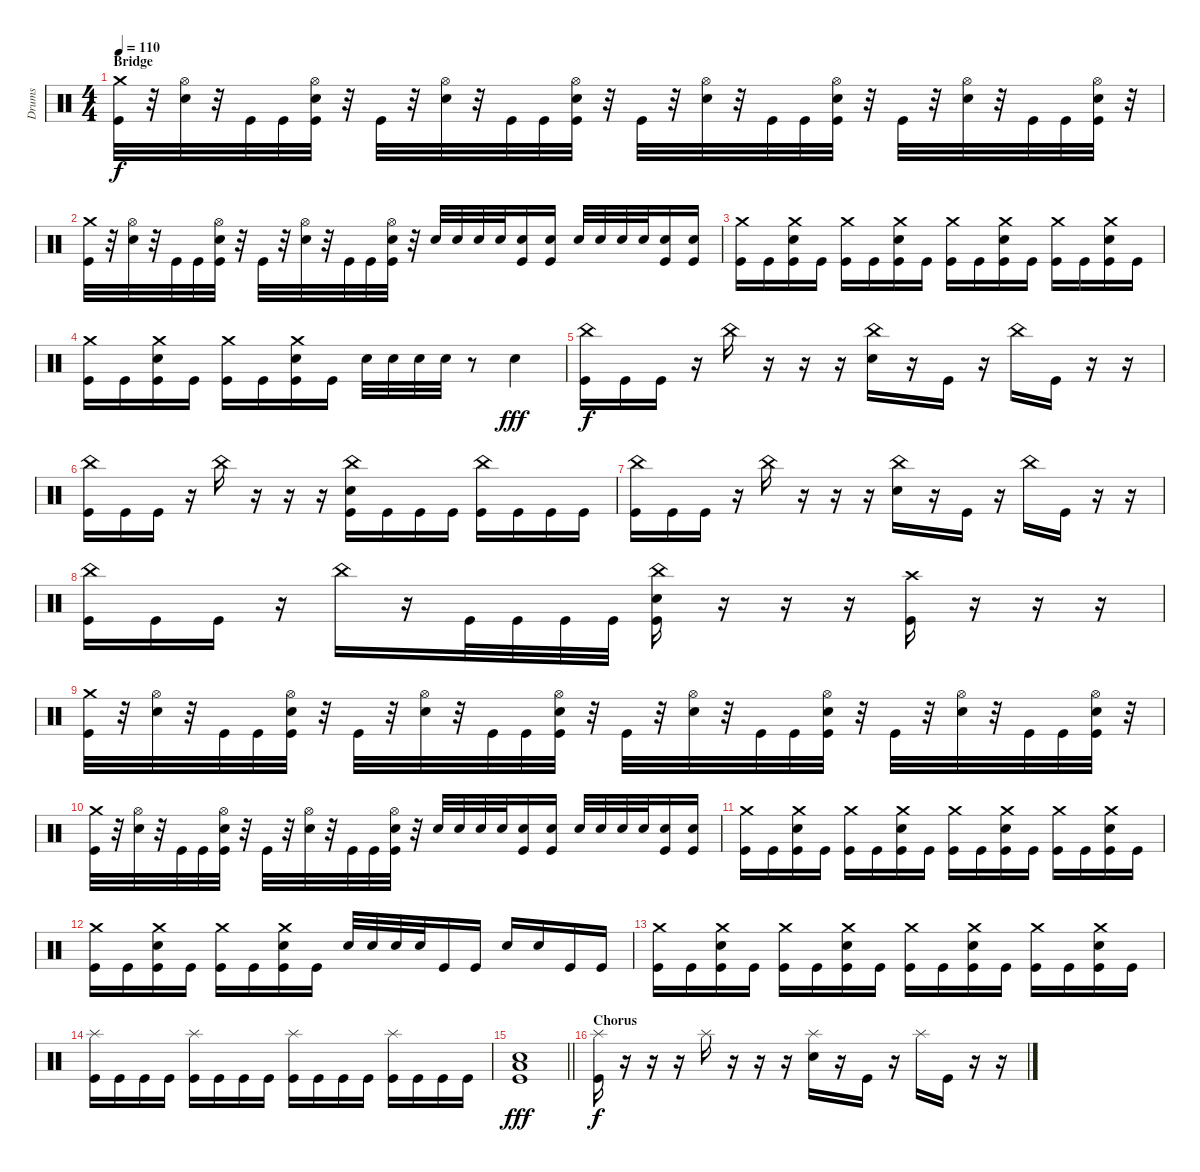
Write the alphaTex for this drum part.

\track ("Drums" "Drums") {instrument percussion}
\staff {score}
\articulation defaults
\ts (4 4)
\section ("" "Bridge")
\tempo 110
\clef neutral
\ks c
("Crash medium (hit)" "Kick (hit)").32{dy f} r.32 ("Snare (hit) 2" "Hi-Hat (open)").32 r.32 "Kick (hit)".32 "Kick (hit)".32 ("Kick (hit)" "Snare (hit) 2" "Hi-Hat (open)").32 r.32 "Kick (hit)".32 r.32 ("Snare (hit) 2" "Hi-Hat (open)").32 r.32 "Kick (hit)".32 "Kick (hit)".32 ("Kick (hit)" "Snare (hit) 2" "Hi-Hat (open)").32 r.32 "Kick (hit)".32 r.32 ("Snare (hit) 2" "Hi-Hat (open)").32 r.32 "Kick (hit)".32 "Kick (hit)".32 ("Kick (hit)" "Snare (hit) 2" "Hi-Hat (open)").32 r.32 "Kick (hit)".32 r.32 ("Snare (hit) 2" "Hi-Hat (open)").32 r.32 "Kick (hit)".32 "Kick (hit)".32 ("Kick (hit)" "Snare (hit) 2" "Hi-Hat (open)").32 r.32 |
("Crash medium (hit)" "Kick (hit)").32 r.32 ("Snare (hit) 2" "Hi-Hat (open)").32 r.32 "Kick (hit)".32 "Kick (hit)".32 ("Kick (hit)" "Snare (hit) 2" "Hi-Hat (open)").32 r.32 "Kick (hit)".32 r.32 ("Snare (hit) 2" "Hi-Hat (open)").32 r.32 "Kick (hit)".32 "Kick (hit)".32 ("Kick (hit)" "Hi-Hat (open)" "Snare (hit) 2").32 r.32 "Snare (hit) 2".32 "Snare (hit) 2".32 "Snare (hit) 2".32 "Snare (hit) 2".32 ("Snare (hit) 2" "Kick (hit)").16 ("Snare (hit) 2" "Kick (hit)").16 "Snare (hit) 2".32 "Snare (hit) 2".32 "Snare (hit) 2".32 "Snare (hit) 2".32 ("Snare (hit) 2" "Kick (hit)").16 ("Snare (hit) 2" "Kick (hit)").16 |
("Kick (hit)" "Crash medium (hit)").16 "Kick (hit)".16 ("Kick (hit)" "Crash medium (hit)" "Snare (hit) 2").16 "Kick (hit)".16 ("Kick (hit)" "Crash medium (hit)").16 "Kick (hit)".16 ("Kick (hit)" "Crash medium (hit)" "Snare (hit) 2").16 "Kick (hit)".16 ("Kick (hit)" "Crash medium (hit)").16 "Kick (hit)".16 ("Kick (hit)" "Crash medium (hit)" "Snare (hit) 2").16 "Kick (hit)".16 ("Kick (hit)" "Crash medium (hit)").16 "Kick (hit)".16 ("Kick (hit)" "Crash medium (hit)" "Snare (hit) 2").16 "Kick (hit)".16 |
("Kick (hit)" "Crash medium (hit)").16 "Kick (hit)".16 ("Kick (hit)" "Crash medium (hit)" "Snare (hit) 2").16 "Kick (hit)".16 ("Kick (hit)" "Crash medium (hit)").16 "Kick (hit)".16 ("Kick (hit)" "Crash medium (hit)" "Snare (hit) 2").16 "Kick (hit)".16 "Snare (hit) 2".32 "Snare (hit) 2".32 "Snare (hit) 2".32 "Snare (hit) 2".32 r.8 "Snare (hit) 2".4{dy fff} |
("Kick (hit)" "China (hit)").16{dy f} "Kick (hit)".16 "Kick (hit)".16 r.16 "China (hit)".16 r.16 r.16 r.16 ("China (hit)" "Snare (hit) 2").16 r.16 "Kick (hit)".16 r.16 "China (hit)".16 "Kick (hit)".16 r.16 r.16 |
("Kick (hit)" "China (hit)").16 "Kick (hit)".16 "Kick (hit)".16 r.16 "China (hit)".16 r.16 r.16 r.16 ("Kick (hit)" "China (hit)" "Snare (hit) 2").16 "Kick (hit)".16 "Kick (hit)".16 "Kick (hit)".16 ("Kick (hit)" "China (hit)").16 "Kick (hit)".16 "Kick (hit)".16 "Kick (hit)".16 |
("Kick (hit)" "China (hit)").16 "Kick (hit)".16 "Kick (hit)".16 r.16 "China (hit)".16 r.16 r.16 r.16 ("China (hit)" "Snare (hit) 2").16 r.16 "Kick (hit)".16 r.16 "China (hit)".16 "Kick (hit)".16 r.16 r.16 |
("Kick (hit)" "China (hit)").16 "Kick (hit)".16 "Kick (hit)".16 r.16 "China (hit)".16 r.16 "Kick (hit)".32 "Kick (hit)".32 "Kick (hit)".32 "Kick (hit)".32 ("Kick (hit)" "China (hit)" "Snare (hit) 2").16 r.16 r.16 r.16 ("Kick (hit)" "Crash high (hit)").16 r.16 r.16 r.16 |
("Crash medium (hit)" "Kick (hit)").32 r.32 ("Snare (hit) 2" "Hi-Hat (open)").32 r.32 "Kick (hit)".32 "Kick (hit)".32 ("Kick (hit)" "Snare (hit) 2" "Hi-Hat (open)").32 r.32 "Kick (hit)".32 r.32 ("Snare (hit) 2" "Hi-Hat (open)").32 r.32 "Kick (hit)".32 "Kick (hit)".32 ("Kick (hit)" "Snare (hit) 2" "Hi-Hat (open)").32 r.32 "Kick (hit)".32 r.32 ("Snare (hit) 2" "Hi-Hat (open)").32 r.32 "Kick (hit)".32 "Kick (hit)".32 ("Kick (hit)" "Snare (hit) 2" "Hi-Hat (open)").32 r.32 "Kick (hit)".32 r.32 ("Snare (hit) 2" "Hi-Hat (open)").32 r.32 "Kick (hit)".32 "Kick (hit)".32 ("Kick (hit)" "Snare (hit) 2" "Hi-Hat (open)").32 r.32 |
("Crash medium (hit)" "Kick (hit)").32 r.32 ("Snare (hit) 2" "Hi-Hat (open)").32 r.32 "Kick (hit)".32 "Kick (hit)".32 ("Kick (hit)" "Snare (hit) 2" "Hi-Hat (open)").32 r.32 "Kick (hit)".32 r.32 ("Snare (hit) 2" "Hi-Hat (open)").32 r.32 "Kick (hit)".32 "Kick (hit)".32 ("Kick (hit)" "Hi-Hat (open)" "Snare (hit) 2").32 r.32 "Snare (hit) 2".32 "Snare (hit) 2".32 "Snare (hit) 2".32 "Snare (hit) 2".32 ("Snare (hit) 2" "Kick (hit)").16 ("Snare (hit) 2" "Kick (hit)").16 "Snare (hit) 2".32 "Snare (hit) 2".32 "Snare (hit) 2".32 "Snare (hit) 2".32 ("Snare (hit) 2" "Kick (hit)").16 ("Snare (hit) 2" "Kick (hit)").16 |
("Kick (hit)" "Crash medium (hit)").16 "Kick (hit)".16 ("Kick (hit)" "Crash medium (hit)" "Snare (hit) 2").16 "Kick (hit)".16 ("Kick (hit)" "Crash medium (hit)").16 "Kick (hit)".16 ("Kick (hit)" "Crash medium (hit)" "Snare (hit) 2").16 "Kick (hit)".16 ("Kick (hit)" "Crash medium (hit)").16 "Kick (hit)".16 ("Kick (hit)" "Crash medium (hit)" "Snare (hit) 2").16 "Kick (hit)".16 ("Kick (hit)" "Crash medium (hit)").16 "Kick (hit)".16 ("Kick (hit)" "Crash medium (hit)" "Snare (hit) 2").16 "Kick (hit)".16 |
("Kick (hit)" "Crash medium (hit)").16 "Kick (hit)".16 ("Kick (hit)" "Crash medium (hit)" "Snare (hit) 2").16 "Kick (hit)".16 ("Kick (hit)" "Crash medium (hit)").16 "Kick (hit)".16 ("Kick (hit)" "Crash medium (hit)" "Snare (hit) 2").16 "Kick (hit)".16 "Snare (hit) 2".32 "Snare (hit) 2".32 "Snare (hit) 2".32 "Snare (hit) 2".32 "Kick (hit)".16 "Kick (hit)".16 "Snare (hit) 2".16 "Snare (hit) 2".16 "Kick (hit)".16 "Kick (hit)".16 |
("Kick (hit)" "Crash medium (hit)").16 "Kick (hit)".16 ("Kick (hit)" "Crash medium (hit)" "Snare (hit) 2").16 "Kick (hit)".16 ("Kick (hit)" "Crash medium (hit)").16 "Kick (hit)".16 ("Kick (hit)" "Crash medium (hit)" "Snare (hit) 2").16 "Kick (hit)".16 ("Kick (hit)" "Crash medium (hit)").16 "Kick (hit)".16 ("Kick (hit)" "Crash medium (hit)" "Snare (hit) 2").16 "Kick (hit)".16 ("Kick (hit)" "Crash medium (hit)").16 "Kick (hit)".16 ("Kick (hit)" "Crash medium (hit)" "Snare (hit) 2").16 "Kick (hit)".16 |
("Kick (hit)" "Splash (hit)").16 "Kick (hit)".16 "Kick (hit)".16 "Kick (hit)".16 ("Kick (hit)" "Splash (hit)").16 "Kick (hit)".16 "Kick (hit)".16 "Kick (hit)".16 ("Kick (hit)" "Splash (hit)").16 "Kick (hit)".16 "Kick (hit)".16 "Kick (hit)".16 ("Kick (hit)" "Splash (hit)").16 "Kick (hit)".16 "Kick (hit)".16 "Kick (hit)".16 |
\barLineRight lightlight
("Snare (hit) 2" "Low Floor Tom (hit)" "Kick (hit)").1{dy fff} |
\section ("" "Chorus")
("Splash (hit)" "Kick (hit)").16{dy f} r.16 r.16 r.16 "Splash (hit)".16 r.16 r.16 r.16 ("Splash (hit)" "Snare (hit) 2").16 r.16 "Kick (hit)".16 r.16 "Splash (hit)".16 "Kick (hit)".16 r.16 r.16
